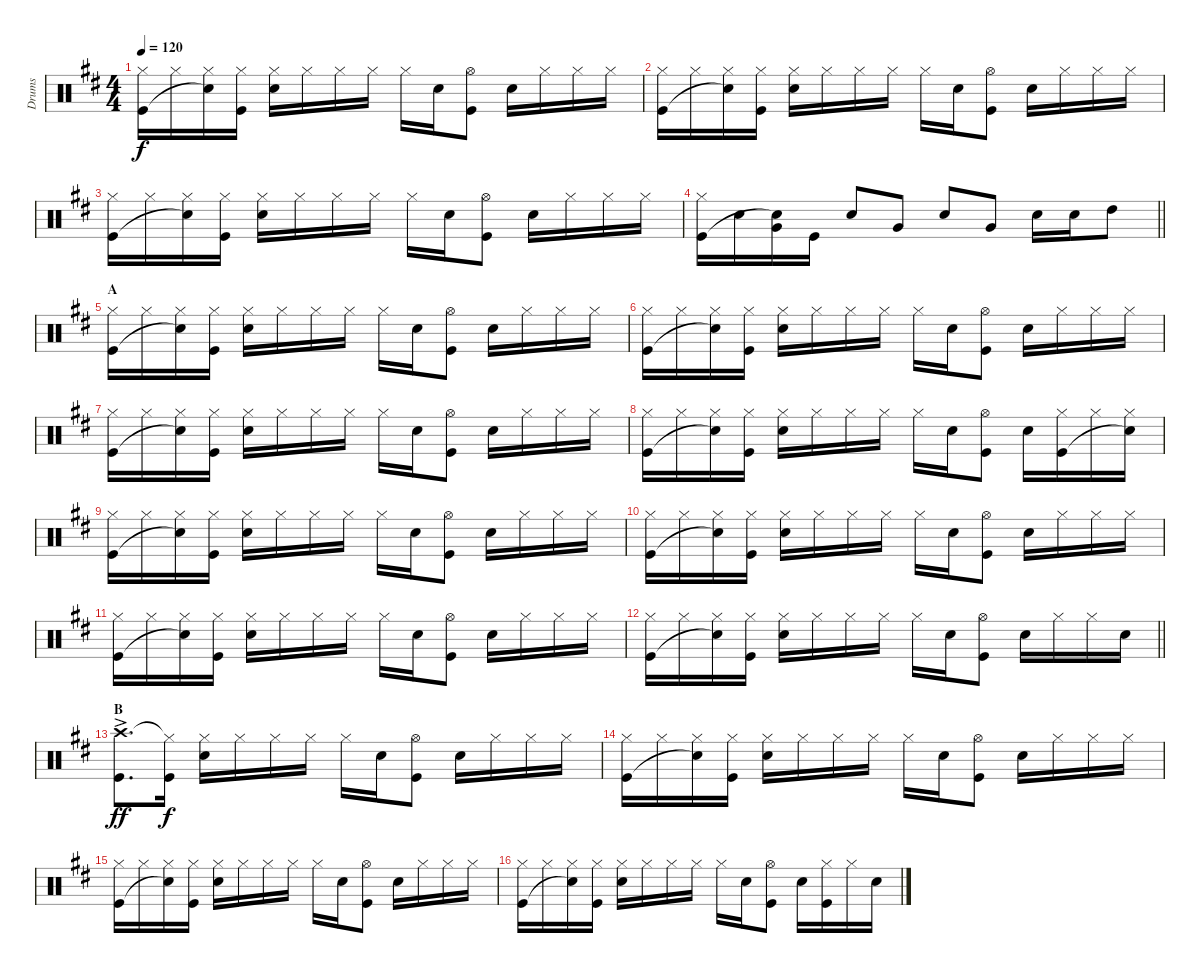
\track ("Drums" "Drums") {instrument percussion}
\staff {score}
\articulation defaults
\ts (4 4)
\tempo 120
\clef neutral
\ks d
("Hi-Hat (closed)" "Kick (hit)").16{dy f} "Hi-Hat (closed)".16 ("Hi-Hat (closed)" "Snare (hit)"{t}).16 ("Hi-Hat (closed)" "Kick (hit)").16 ("Hi-Hat (closed)" "Snare (hit) 2").16 "Hi-Hat (closed)".16 "Hi-Hat (closed)".16 "Hi-Hat (closed)".16 "Hi-Hat (closed)".16 "Snare (hit) 2".16 ("Hi-Hat (open)" "Kick (hit)").8 "Snare (hit) 2".16 "Hi-Hat (closed)".16 "Hi-Hat (closed)".16 "Hi-Hat (closed)".16 |
("Hi-Hat (closed)" "Kick (hit)").16 "Hi-Hat (closed)".16 ("Hi-Hat (closed)" "Snare (hit)"{t}).16 ("Hi-Hat (closed)" "Kick (hit)").16 ("Hi-Hat (closed)" "Snare (hit) 2").16 "Hi-Hat (closed)".16 "Hi-Hat (closed)".16 "Hi-Hat (closed)".16 "Hi-Hat (closed)".16 "Snare (hit) 2".16 ("Hi-Hat (open)" "Kick (hit)").8 "Snare (hit) 2".16 "Hi-Hat (closed)".16 "Hi-Hat (closed)".16 "Hi-Hat (closed)".16 |
("Hi-Hat (closed)" "Kick (hit)").16 "Hi-Hat (closed)".16 ("Hi-Hat (closed)" "Snare (hit)"{t}).16 ("Hi-Hat (closed)" "Kick (hit)").16 ("Hi-Hat (closed)" "Snare (hit) 2").16 "Hi-Hat (closed)".16 "Hi-Hat (closed)".16 "Hi-Hat (closed)".16 "Hi-Hat (closed)".16 "Snare (hit) 2".16 ("Hi-Hat (open)" "Kick (hit)").8 "Snare (hit) 2".16 "Hi-Hat (closed)".16 "Hi-Hat (closed)".16 "Hi-Hat (closed)".16 |
\barLineRight lightlight
("Hi-Hat (closed)" "Kick (hit)").16 "Snare (hit) 2".16 ("Very Low Tom (hit)" "Snare (hit)"{t}).16 "Kick (hit)".16 "Snare (hit) 2".8 "Very Low Tom (hit)".8 "Snare (hit) 2".8 "Very Low Tom (hit)".8 "Snare (hit) 2".16 "Snare (hit) 2".16 "High Tom (hit)".8 |
\section ("" "A")
("Hi-Hat (closed)" "Kick (hit)").16 "Hi-Hat (closed)".16 ("Hi-Hat (closed)" "Snare (hit)"{t}).16 ("Hi-Hat (closed)" "Kick (hit)").16 ("Hi-Hat (closed)" "Snare (hit) 2").16 "Hi-Hat (closed)".16 "Hi-Hat (closed)".16 "Hi-Hat (closed)".16 "Hi-Hat (closed)".16 "Snare (hit) 2".16 ("Hi-Hat (open)" "Kick (hit)").8 "Snare (hit) 2".16 "Hi-Hat (closed)".16 "Hi-Hat (closed)".16 "Hi-Hat (closed)".16 |
("Hi-Hat (closed)" "Kick (hit)").16 "Hi-Hat (closed)".16 ("Hi-Hat (closed)" "Snare (hit)"{t}).16 ("Hi-Hat (closed)" "Kick (hit)").16 ("Hi-Hat (closed)" "Snare (hit) 2").16 "Hi-Hat (closed)".16 "Hi-Hat (closed)".16 "Hi-Hat (closed)".16 "Hi-Hat (closed)".16 "Snare (hit) 2".16 ("Hi-Hat (open)" "Kick (hit)").8 "Snare (hit) 2".16 "Hi-Hat (closed)".16 "Hi-Hat (closed)".16 "Hi-Hat (closed)".16 |
("Hi-Hat (closed)" "Kick (hit)").16 "Hi-Hat (closed)".16 ("Hi-Hat (closed)" "Snare (hit)"{t}).16 ("Hi-Hat (closed)" "Kick (hit)").16 ("Hi-Hat (closed)" "Snare (hit) 2").16 "Hi-Hat (closed)".16 "Hi-Hat (closed)".16 "Hi-Hat (closed)".16 "Hi-Hat (closed)".16 "Snare (hit) 2".16 ("Hi-Hat (open)" "Kick (hit)").8 "Snare (hit) 2".16 "Hi-Hat (closed)".16 "Hi-Hat (closed)".16 "Hi-Hat (closed)".16 |
("Hi-Hat (closed)" "Kick (hit)").16 "Hi-Hat (closed)".16 ("Hi-Hat (closed)" "Snare (hit)"{t}).16 ("Hi-Hat (closed)" "Kick (hit)").16 ("Hi-Hat (closed)" "Snare (hit) 2").16 "Hi-Hat (closed)".16 "Hi-Hat (closed)".16 "Hi-Hat (closed)".16 "Hi-Hat (closed)".16 "Snare (hit) 2".16 ("Hi-Hat (open)" "Kick (hit)").8 "Snare (hit) 2".16 ("Hi-Hat (closed)" "Kick (hit)").16 "Hi-Hat (closed)".16 ("Hi-Hat (closed)" "Snare (hit)"{t}).16 |
("Hi-Hat (closed)" "Kick (hit)").16 "Hi-Hat (closed)".16 ("Hi-Hat (closed)" "Snare (hit)"{t}).16 ("Hi-Hat (closed)" "Kick (hit)").16 ("Hi-Hat (closed)" "Snare (hit) 2").16 "Hi-Hat (closed)".16 "Hi-Hat (closed)".16 "Hi-Hat (closed)".16 "Hi-Hat (closed)".16 "Snare (hit) 2".16 ("Hi-Hat (open)" "Kick (hit)").8 "Snare (hit) 2".16 "Hi-Hat (closed)".16 "Hi-Hat (closed)".16 "Hi-Hat (closed)".16 |
("Hi-Hat (closed)" "Kick (hit)").16 "Hi-Hat (closed)".16 ("Hi-Hat (closed)" "Snare (hit)"{t}).16 ("Hi-Hat (closed)" "Kick (hit)").16 ("Hi-Hat (closed)" "Snare (hit) 2").16 "Hi-Hat (closed)".16 "Hi-Hat (closed)".16 "Hi-Hat (closed)".16 "Hi-Hat (closed)".16 "Snare (hit) 2".16 ("Hi-Hat (open)" "Kick (hit)").8 "Snare (hit) 2".16 "Hi-Hat (closed)".16 "Hi-Hat (closed)".16 "Hi-Hat (closed)".16 |
("Hi-Hat (closed)" "Kick (hit)").16 "Hi-Hat (closed)".16 ("Hi-Hat (closed)" "Snare (hit)"{t}).16 ("Hi-Hat (closed)" "Kick (hit)").16 ("Hi-Hat (closed)" "Snare (hit) 2").16 "Hi-Hat (closed)".16 "Hi-Hat (closed)".16 "Hi-Hat (closed)".16 "Hi-Hat (closed)".16 "Snare (hit) 2".16 ("Hi-Hat (open)" "Kick (hit)").8 "Snare (hit) 2".16 "Hi-Hat (closed)".16 "Hi-Hat (closed)".16 "Hi-Hat (closed)".16 |
\barLineRight lightlight
("Hi-Hat (closed)" "Kick (hit)").16 "Hi-Hat (closed)".16 ("Hi-Hat (closed)" "Snare (hit)"{t}).16 ("Hi-Hat (closed)" "Kick (hit)").16 ("Hi-Hat (closed)" "Snare (hit) 2").16 "Hi-Hat (closed)".16 "Hi-Hat (closed)".16 "Hi-Hat (closed)".16 "Hi-Hat (closed)".16 "Snare (hit) 2".16 ("Hi-Hat (open)" "Kick (hit)").8 "Snare (hit) 2".16 "Hi-Hat (closed)".16 "Hi-Hat (closed)".16 "Snare (hit) 2".16 |
\section ("" "B")
("Crash high (hit)"{ac} "Kick (hit)").8{d dy ff} ("Hi-Hat (closed)"{t} "Kick (hit)").16{dy f} ("Hi-Hat (closed)" "Snare (hit) 2").16 "Hi-Hat (closed)".16 "Hi-Hat (closed)".16 "Hi-Hat (closed)".16 "Hi-Hat (closed)".16 "Snare (hit) 2".16 ("Hi-Hat (open)" "Kick (hit)").8 "Snare (hit) 2".16 "Hi-Hat (closed)".16 "Hi-Hat (closed)".16 "Hi-Hat (closed)".16 |
("Hi-Hat (closed)" "Kick (hit)").16 "Hi-Hat (closed)".16 ("Hi-Hat (closed)" "Snare (hit)"{t}).16 ("Hi-Hat (closed)" "Kick (hit)").16 ("Hi-Hat (closed)" "Snare (hit) 2").16 "Hi-Hat (closed)".16 "Hi-Hat (closed)".16 "Hi-Hat (closed)".16 "Hi-Hat (closed)".16 "Snare (hit) 2".16 ("Hi-Hat (open)" "Kick (hit)").8 "Snare (hit) 2".16 "Hi-Hat (closed)".16 "Hi-Hat (closed)".16 "Hi-Hat (closed)".16 |
("Hi-Hat (closed)" "Kick (hit)").16 "Hi-Hat (closed)".16 ("Hi-Hat (closed)" "Snare (hit)"{t}).16 ("Hi-Hat (closed)" "Kick (hit)").16 ("Hi-Hat (closed)" "Snare (hit) 2").16 "Hi-Hat (closed)".16 "Hi-Hat (closed)".16 "Hi-Hat (closed)".16 "Hi-Hat (closed)".16 "Snare (hit) 2".16 ("Hi-Hat (open)" "Kick (hit)").8 "Snare (hit) 2".16 "Hi-Hat (closed)".16 "Hi-Hat (closed)".16 "Hi-Hat (closed)".16 |
("Hi-Hat (closed)" "Kick (hit)").16 "Hi-Hat (closed)".16 ("Hi-Hat (closed)" "Snare (hit)"{t}).16 ("Hi-Hat (closed)" "Kick (hit)").16 ("Hi-Hat (closed)" "Snare (hit) 2").16 "Hi-Hat (closed)".16 "Hi-Hat (closed)".16 "Hi-Hat (closed)".16 "Hi-Hat (closed)".16 "Snare (hit) 2".16 ("Hi-Hat (open)" "Kick (hit)").8 "Snare (hit) 2".16 ("Hi-Hat (closed)" "Kick (hit)").16 "Hi-Hat (closed)".16 "Snare (hit) 2".16
